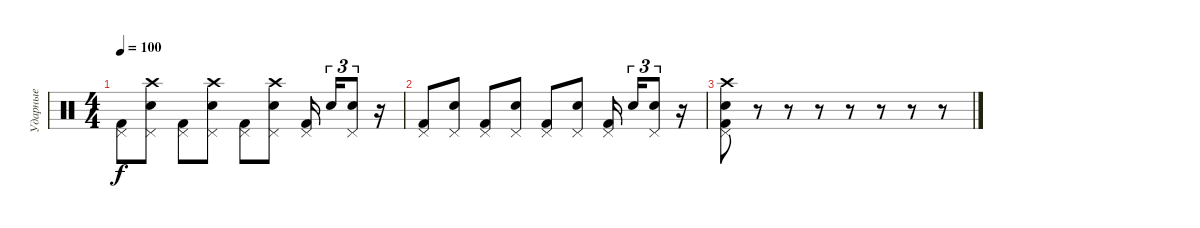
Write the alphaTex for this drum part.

\track ("Ударные" "Ударные") {instrument percussion}
\staff {score}
\articulation defaults
\ts (4 4)
\tempo 100
\clef neutral
\ks c
("Pedal Hi-Hat (hit)" "Kick (hit) 2").8{dy f} ("Pedal Hi-Hat (hit)" "Electric Snare (hit)" "Crash high (hit)").8 ("Pedal Hi-Hat (hit)" "Kick (hit) 2").8 ("Pedal Hi-Hat (hit)" "Electric Snare (hit)" "Crash high (hit)").8 ("Pedal Hi-Hat (hit)" "Kick (hit) 2").8 ("Pedal Hi-Hat (hit)" "Electric Snare (hit)" "Crash high (hit)").8 ("Pedal Hi-Hat (hit)" "Kick (hit) 2").16{beam splitsecondary} "Electric Snare (hit)".16{tu (3 2)} ("Pedal Hi-Hat (hit)" "Electric Snare (hit)").8{tu (3 2)} r.16 |
("Pedal Hi-Hat (hit)" "Kick (hit) 2").8 ("Pedal Hi-Hat (hit)" "Electric Snare (hit)").8 ("Pedal Hi-Hat (hit)" "Kick (hit) 2").8 ("Pedal Hi-Hat (hit)" "Electric Snare (hit)").8 ("Pedal Hi-Hat (hit)" "Kick (hit) 2").8 ("Pedal Hi-Hat (hit)" "Electric Snare (hit)").8 ("Pedal Hi-Hat (hit)" "Kick (hit) 2").16{beam splitsecondary} "Electric Snare (hit)".16{tu (3 2)} ("Pedal Hi-Hat (hit)" "Electric Snare (hit)").8{tu (3 2)} r.16 |
("Pedal Hi-Hat (hit)" "Electric Snare (hit)" "Crash high (hit)" "Kick (hit) 2").8 r.8 r.8 r.8 r.8 r.8 r.8 r.8
